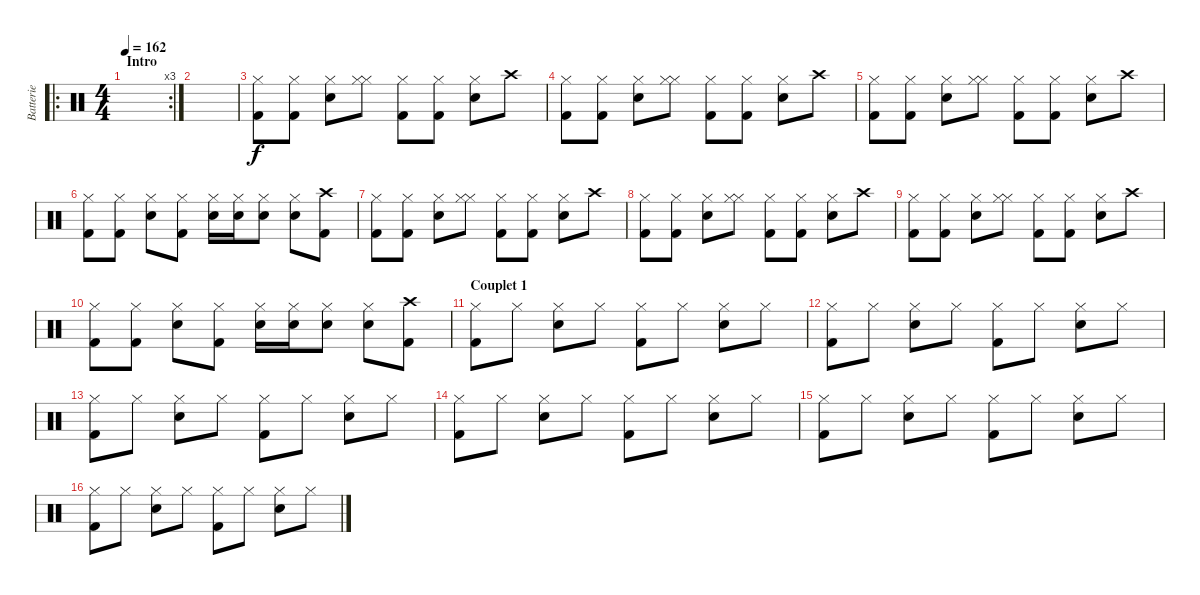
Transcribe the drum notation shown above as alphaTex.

\track ("Batterie" "Batterie") {instrument percussion}
\staff {score}
\articulation defaults
\ro
\rc 3
\ts (4 4)
\section ("" "Intro")
\tempo 162
\clef neutral
\ks c
|
|
("Kick (hit) 2" "Hi-Hat (closed)").8 ("Kick (hit) 2" "Hi-Hat (closed)").8 ("Snare (hit) 2" "Hi-Hat (closed)").8 ("Hi-Hat (closed)" "Hi-Hat (closed)").8 ("Kick (hit) 2" "Hi-Hat (closed)").8 ("Kick (hit) 2" "Hi-Hat (closed)").8 ("Snare (hit) 2" "Hi-Hat (closed)").8 "Crash high (hit)".8 |
("Kick (hit) 2" "Hi-Hat (closed)").8 ("Kick (hit) 2" "Hi-Hat (closed)").8 ("Snare (hit) 2" "Hi-Hat (closed)").8 ("Hi-Hat (closed)" "Hi-Hat (closed)").8 ("Kick (hit) 2" "Hi-Hat (closed)").8 ("Kick (hit) 2" "Hi-Hat (closed)").8 ("Snare (hit) 2" "Hi-Hat (closed)").8 "Crash high (hit)".8 |
("Kick (hit) 2" "Hi-Hat (closed)").8 ("Kick (hit) 2" "Hi-Hat (closed)").8 ("Snare (hit) 2" "Hi-Hat (closed)").8 ("Hi-Hat (closed)" "Hi-Hat (closed)").8 ("Kick (hit) 2" "Hi-Hat (closed)").8 ("Kick (hit) 2" "Hi-Hat (closed)").8 ("Snare (hit) 2" "Hi-Hat (closed)").8 "Crash high (hit)".8 |
("Kick (hit) 2" "Hi-Hat (closed)").8 ("Kick (hit) 2" "Hi-Hat (closed)").8 ("Snare (hit) 2" "Hi-Hat (closed)").8 ("Kick (hit) 2" "Hi-Hat (closed)").8 ("Snare (hit) 2" "Hi-Hat (closed)").16 ("Snare (hit) 2" "Hi-Hat (closed)").16 ("Snare (hit) 2" "Hi-Hat (closed)").8 ("Snare (hit) 2" "Hi-Hat (closed)").8 ("Kick (hit) 2" "Crash high (hit)").8 |
("Kick (hit) 2" "Hi-Hat (closed)").8 ("Kick (hit) 2" "Hi-Hat (closed)").8 ("Snare (hit) 2" "Hi-Hat (closed)").8 ("Hi-Hat (closed)" "Hi-Hat (closed)").8 ("Kick (hit) 2" "Hi-Hat (closed)").8 ("Kick (hit) 2" "Hi-Hat (closed)").8 ("Snare (hit) 2" "Hi-Hat (closed)").8 "Crash high (hit)".8 |
("Kick (hit) 2" "Hi-Hat (closed)").8 ("Kick (hit) 2" "Hi-Hat (closed)").8 ("Snare (hit) 2" "Hi-Hat (closed)").8 ("Hi-Hat (closed)" "Hi-Hat (closed)").8 ("Kick (hit) 2" "Hi-Hat (closed)").8 ("Kick (hit) 2" "Hi-Hat (closed)").8 ("Snare (hit) 2" "Hi-Hat (closed)").8 "Crash high (hit)".8 |
("Kick (hit) 2" "Hi-Hat (closed)").8 ("Kick (hit) 2" "Hi-Hat (closed)").8 ("Snare (hit) 2" "Hi-Hat (closed)").8 ("Hi-Hat (closed)" "Hi-Hat (closed)").8 ("Kick (hit) 2" "Hi-Hat (closed)").8 ("Kick (hit) 2" "Hi-Hat (closed)").8 ("Snare (hit) 2" "Hi-Hat (closed)").8 "Crash high (hit)".8 |
("Kick (hit) 2" "Hi-Hat (closed)").8 ("Kick (hit) 2" "Hi-Hat (closed)").8 ("Snare (hit) 2" "Hi-Hat (closed)").8 ("Kick (hit) 2" "Hi-Hat (closed)").8 ("Snare (hit) 2" "Hi-Hat (closed)").16 ("Snare (hit) 2" "Hi-Hat (closed)").16 ("Snare (hit) 2" "Hi-Hat (closed)").8 ("Snare (hit) 2" "Hi-Hat (closed)").8 ("Kick (hit) 2" "Crash high (hit)").8 |
\section ("" "Couplet 1")
("Kick (hit) 2" "Hi-Hat (closed)").8 "Hi-Hat (closed)".8 ("Snare (hit) 2" "Hi-Hat (closed)").8 "Hi-Hat (closed)".8 ("Kick (hit) 2" "Hi-Hat (closed)").8 "Hi-Hat (closed)".8 ("Snare (hit) 2" "Hi-Hat (closed)").8 "Hi-Hat (closed)".8 |
("Kick (hit) 2" "Hi-Hat (closed)").8 "Hi-Hat (closed)".8 ("Snare (hit) 2" "Hi-Hat (closed)").8 "Hi-Hat (closed)".8 ("Kick (hit) 2" "Hi-Hat (closed)").8 "Hi-Hat (closed)".8 ("Snare (hit) 2" "Hi-Hat (closed)").8 "Hi-Hat (closed)".8 |
("Kick (hit) 2" "Hi-Hat (closed)").8 "Hi-Hat (closed)".8 ("Snare (hit) 2" "Hi-Hat (closed)").8 "Hi-Hat (closed)".8 ("Kick (hit) 2" "Hi-Hat (closed)").8 "Hi-Hat (closed)".8 ("Snare (hit) 2" "Hi-Hat (closed)").8 "Hi-Hat (closed)".8 |
("Kick (hit) 2" "Hi-Hat (closed)").8 "Hi-Hat (closed)".8 ("Snare (hit) 2" "Hi-Hat (closed)").8 "Hi-Hat (closed)".8 ("Kick (hit) 2" "Hi-Hat (closed)").8 "Hi-Hat (closed)".8 ("Snare (hit) 2" "Hi-Hat (closed)").8 "Hi-Hat (closed)".8 |
("Kick (hit) 2" "Hi-Hat (closed)").8 "Hi-Hat (closed)".8 ("Snare (hit) 2" "Hi-Hat (closed)").8 "Hi-Hat (closed)".8 ("Kick (hit) 2" "Hi-Hat (closed)").8 "Hi-Hat (closed)".8 ("Snare (hit) 2" "Hi-Hat (closed)").8 "Hi-Hat (closed)".8 |
("Kick (hit) 2" "Hi-Hat (closed)").8 "Hi-Hat (closed)".8 ("Snare (hit) 2" "Hi-Hat (closed)").8 "Hi-Hat (closed)".8 ("Kick (hit) 2" "Hi-Hat (closed)").8 "Hi-Hat (closed)".8 ("Snare (hit) 2" "Hi-Hat (closed)").8 "Hi-Hat (closed)".8
